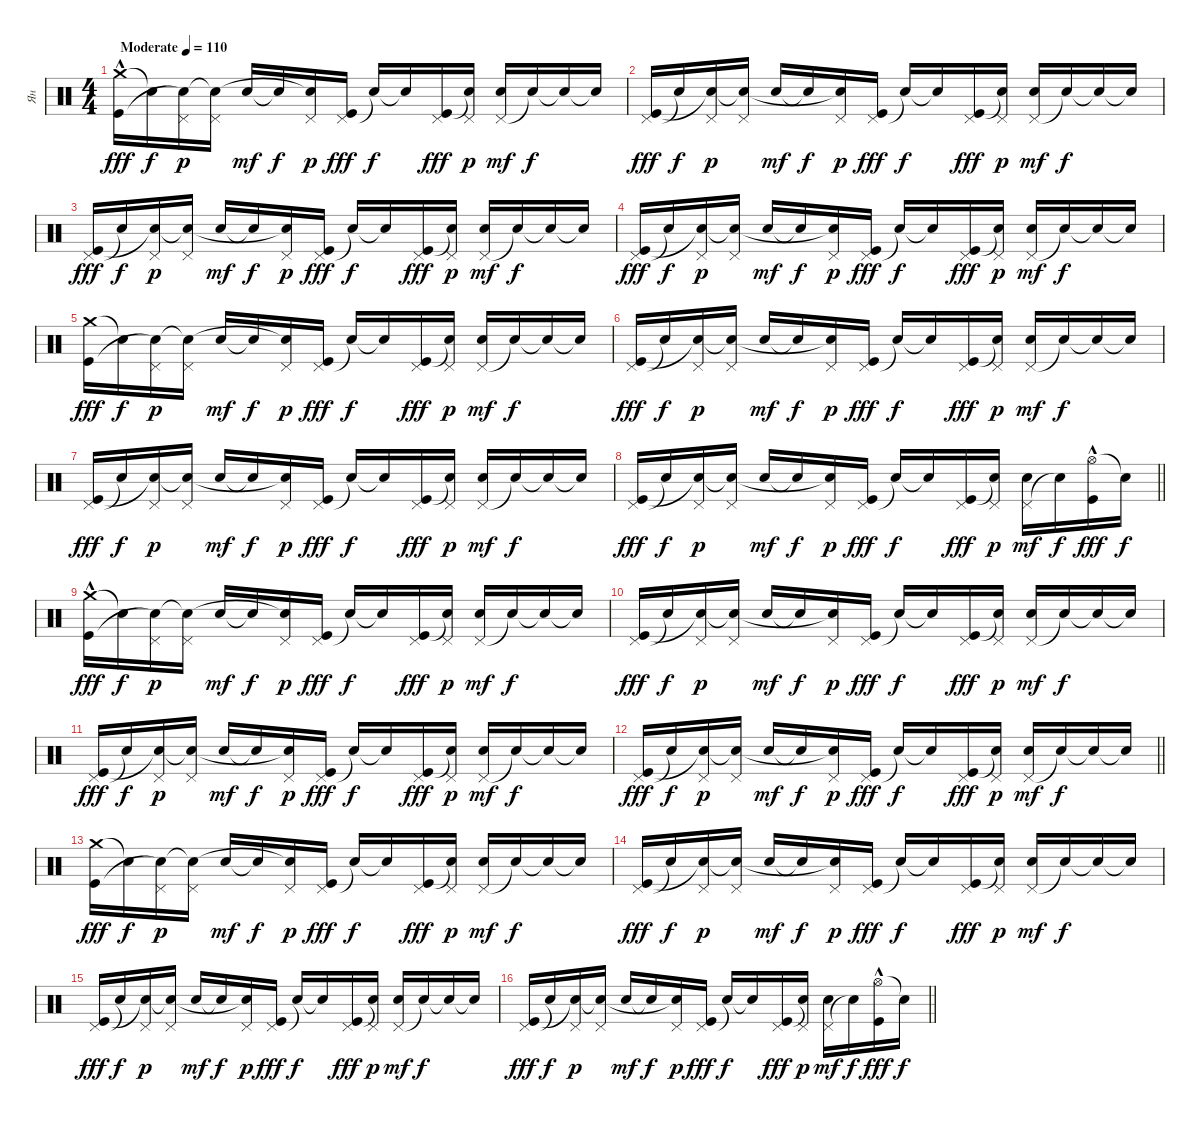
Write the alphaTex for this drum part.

\track ("Ян " "Ян ") {instrument percussion}
\staff
\articulation defaults
\ts (4 4)
\tempo (110 "Moderate")
\clef neutral
\ks c
("Crash medium (hit)" "Kick (hit)"{hac}).16{dy fff} "Snare (hit)"{t}.16{dy f} ("Pedal Hi-Hat (hit)" "Snare (hit)"{t}).16{dy p} ("Pedal Hi-Hat (hit)" "Snare (hit)"{t}).16 "Snare (hit) 2".16{dy mf} "Snare (hit)"{t}.16{dy f} ("Pedal Hi-Hat (hit)" "Snare (hit)"{t}).16{dy p} ("Pedal Hi-Hat (hit)" "Kick (hit)").16{dy fff} "Snare (hit)"{t}.16{dy f} "Snare (hit)"{t}.16 ("Pedal Hi-Hat (hit)" "Kick (hit)").16{dy fff} ("Pedal Hi-Hat (hit)" "Snare (hit)"{t}).16{dy p} ("Pedal Hi-Hat (hit)" "Snare (hit) 2").16{dy mf} "Snare (hit)"{t}.16{dy f} "Snare (hit)"{t}.16 "Snare (hit)"{t}.16 |
("Pedal Hi-Hat (hit)" "Kick (hit)").16{dy fff} "Snare (hit)"{t}.16{dy f} ("Pedal Hi-Hat (hit)" "Snare (hit)"{t}).16{dy p} ("Pedal Hi-Hat (hit)" "Snare (hit)"{t}).16 "Snare (hit) 2".16{dy mf} "Snare (hit)"{t}.16{dy f} ("Pedal Hi-Hat (hit)" "Snare (hit)"{t}).16{dy p} ("Pedal Hi-Hat (hit)" "Kick (hit)").16{dy fff} "Snare (hit)"{t}.16{dy f} "Snare (hit)"{t}.16 ("Pedal Hi-Hat (hit)" "Kick (hit)").16{dy fff} ("Pedal Hi-Hat (hit)" "Snare (hit)"{t}).16{dy p} ("Pedal Hi-Hat (hit)" "Snare (hit) 2").16{dy mf} "Snare (hit)"{t}.16{dy f} "Snare (hit)"{t}.16 "Snare (hit)"{t}.16 |
("Pedal Hi-Hat (hit)" "Kick (hit)").16{dy fff} "Snare (hit)"{t}.16{dy f} ("Pedal Hi-Hat (hit)" "Snare (hit)"{t}).16{dy p} ("Pedal Hi-Hat (hit)" "Snare (hit)"{t}).16 "Snare (hit) 2".16{dy mf} "Snare (hit)"{t}.16{dy f} ("Pedal Hi-Hat (hit)" "Snare (hit)"{t}).16{dy p} ("Pedal Hi-Hat (hit)" "Kick (hit)").16{dy fff} "Snare (hit)"{t}.16{dy f} "Snare (hit)"{t}.16 ("Pedal Hi-Hat (hit)" "Kick (hit)").16{dy fff} ("Pedal Hi-Hat (hit)" "Snare (hit)"{t}).16{dy p} ("Pedal Hi-Hat (hit)" "Snare (hit) 2").16{dy mf} "Snare (hit)"{t}.16{dy f} "Snare (hit)"{t}.16 "Snare (hit)"{t}.16 |
("Pedal Hi-Hat (hit)" "Kick (hit)").16{dy fff} "Snare (hit)"{t}.16{dy f} ("Pedal Hi-Hat (hit)" "Snare (hit)"{t}).16{dy p} ("Pedal Hi-Hat (hit)" "Snare (hit)"{t}).16 "Snare (hit) 2".16{dy mf} "Snare (hit)"{t}.16{dy f} ("Pedal Hi-Hat (hit)" "Snare (hit)"{t}).16{dy p} ("Pedal Hi-Hat (hit)" "Kick (hit)").16{dy fff} "Snare (hit)"{t}.16{dy f} "Snare (hit)"{t}.16 ("Pedal Hi-Hat (hit)" "Kick (hit)").16{dy fff} ("Pedal Hi-Hat (hit)" "Snare (hit)"{t}).16{dy p} ("Pedal Hi-Hat (hit)" "Snare (hit) 2").16{dy mf} "Snare (hit)"{t}.16{dy f} "Snare (hit)"{t}.16 "Snare (hit)"{t}.16 |
("Crash medium (hit)" "Kick (hit)").16{dy fff} "Snare (hit)"{t}.16{dy f} ("Pedal Hi-Hat (hit)" "Snare (hit)"{t}).16{dy p} ("Pedal Hi-Hat (hit)" "Snare (hit)"{t}).16 "Snare (hit) 2".16{dy mf} "Snare (hit)"{t}.16{dy f} ("Pedal Hi-Hat (hit)" "Snare (hit)"{t}).16{dy p} ("Pedal Hi-Hat (hit)" "Kick (hit)").16{dy fff} "Snare (hit)"{t}.16{dy f} "Snare (hit)"{t}.16 ("Pedal Hi-Hat (hit)" "Kick (hit)").16{dy fff} ("Pedal Hi-Hat (hit)" "Snare (hit)"{t}).16{dy p} ("Pedal Hi-Hat (hit)" "Snare (hit) 2").16{dy mf} "Snare (hit)"{t}.16{dy f} "Snare (hit)"{t}.16 "Snare (hit)"{t}.16 |
("Pedal Hi-Hat (hit)" "Kick (hit)").16{dy fff} "Snare (hit)"{t}.16{dy f} ("Pedal Hi-Hat (hit)" "Snare (hit)"{t}).16{dy p} ("Pedal Hi-Hat (hit)" "Snare (hit)"{t}).16 "Snare (hit) 2".16{dy mf} "Snare (hit)"{t}.16{dy f} ("Pedal Hi-Hat (hit)" "Snare (hit)"{t}).16{dy p} ("Pedal Hi-Hat (hit)" "Kick (hit)").16{dy fff} "Snare (hit)"{t}.16{dy f} "Snare (hit)"{t}.16 ("Pedal Hi-Hat (hit)" "Kick (hit)").16{dy fff} ("Pedal Hi-Hat (hit)" "Snare (hit)"{t}).16{dy p} ("Pedal Hi-Hat (hit)" "Snare (hit) 2").16{dy mf} "Snare (hit)"{t}.16{dy f} "Snare (hit)"{t}.16 "Snare (hit)"{t}.16 |
("Pedal Hi-Hat (hit)" "Kick (hit)").16{dy fff} "Snare (hit)"{t}.16{dy f} ("Pedal Hi-Hat (hit)" "Snare (hit)"{t}).16{dy p} ("Pedal Hi-Hat (hit)" "Snare (hit)"{t}).16 "Snare (hit) 2".16{dy mf} "Snare (hit)"{t}.16{dy f} ("Pedal Hi-Hat (hit)" "Snare (hit)"{t}).16{dy p} ("Pedal Hi-Hat (hit)" "Kick (hit)").16{dy fff} "Snare (hit)"{t}.16{dy f} "Snare (hit)"{t}.16 ("Pedal Hi-Hat (hit)" "Kick (hit)").16{dy fff} ("Pedal Hi-Hat (hit)" "Snare (hit)"{t}).16{dy p} ("Pedal Hi-Hat (hit)" "Snare (hit) 2").16{dy mf} "Snare (hit)"{t}.16{dy f} "Snare (hit)"{t}.16 "Snare (hit)"{t}.16 |
\barLineRight lightlight
("Pedal Hi-Hat (hit)" "Kick (hit)").16{dy fff} "Snare (hit)"{t}.16{dy f} ("Pedal Hi-Hat (hit)" "Snare (hit)"{t}).16{dy p} ("Pedal Hi-Hat (hit)" "Snare (hit)"{t}).16 "Snare (hit) 2".16{dy mf} "Snare (hit)"{t}.16{dy f} ("Pedal Hi-Hat (hit)" "Snare (hit)"{t}).16{dy p} ("Pedal Hi-Hat (hit)" "Kick (hit)").16{dy fff} "Snare (hit)"{t}.16{dy f} "Snare (hit)"{t}.16 ("Pedal Hi-Hat (hit)" "Kick (hit)").16{dy fff} ("Pedal Hi-Hat (hit)" "Snare (hit)"{t}).16{dy p} ("Pedal Hi-Hat (hit)" "Snare (hit) 2").16{dy mf} "Snare (hit)"{t}.16{dy f} ("Hi-Hat (open)" "Kick (hit)"{hac}).16{dy fff} "Snare (hit)"{t}.16{dy f} |
("Crash medium (hit)" "Kick (hit)"{hac}).16{dy fff} "Snare (hit)"{t}.16{dy f} ("Pedal Hi-Hat (hit)" "Snare (hit)"{t}).16{dy p} ("Pedal Hi-Hat (hit)" "Snare (hit)"{t}).16 "Snare (hit) 2".16{dy mf} "Snare (hit)"{t}.16{dy f} ("Pedal Hi-Hat (hit)" "Snare (hit)"{t}).16{dy p} ("Pedal Hi-Hat (hit)" "Kick (hit)").16{dy fff} "Snare (hit)"{t}.16{dy f} "Snare (hit)"{t}.16 ("Pedal Hi-Hat (hit)" "Kick (hit)").16{dy fff} ("Pedal Hi-Hat (hit)" "Snare (hit)"{t}).16{dy p} ("Pedal Hi-Hat (hit)" "Snare (hit) 2").16{dy mf} "Snare (hit)"{t}.16{dy f} "Snare (hit)"{t}.16 "Snare (hit)"{t}.16 |
("Pedal Hi-Hat (hit)" "Kick (hit)").16{dy fff} "Snare (hit)"{t}.16{dy f} ("Pedal Hi-Hat (hit)" "Snare (hit)"{t}).16{dy p} ("Pedal Hi-Hat (hit)" "Snare (hit)"{t}).16 "Snare (hit) 2".16{dy mf} "Snare (hit)"{t}.16{dy f} ("Pedal Hi-Hat (hit)" "Snare (hit)"{t}).16{dy p} ("Pedal Hi-Hat (hit)" "Kick (hit)").16{dy fff} "Snare (hit)"{t}.16{dy f} "Snare (hit)"{t}.16 ("Pedal Hi-Hat (hit)" "Kick (hit)").16{dy fff} ("Pedal Hi-Hat (hit)" "Snare (hit)"{t}).16{dy p} ("Pedal Hi-Hat (hit)" "Snare (hit) 2").16{dy mf} "Snare (hit)"{t}.16{dy f} "Snare (hit)"{t}.16 "Snare (hit)"{t}.16 |
("Pedal Hi-Hat (hit)" "Kick (hit)").16{dy fff} "Snare (hit)"{t}.16{dy f} ("Pedal Hi-Hat (hit)" "Snare (hit)"{t}).16{dy p} ("Pedal Hi-Hat (hit)" "Snare (hit)"{t}).16 "Snare (hit) 2".16{dy mf} "Snare (hit)"{t}.16{dy f} ("Pedal Hi-Hat (hit)" "Snare (hit)"{t}).16{dy p} ("Pedal Hi-Hat (hit)" "Kick (hit)").16{dy fff} "Snare (hit)"{t}.16{dy f} "Snare (hit)"{t}.16 ("Pedal Hi-Hat (hit)" "Kick (hit)").16{dy fff} ("Pedal Hi-Hat (hit)" "Snare (hit)"{t}).16{dy p} ("Pedal Hi-Hat (hit)" "Snare (hit) 2").16{dy mf} "Snare (hit)"{t}.16{dy f} "Snare (hit)"{t}.16 "Snare (hit)"{t}.16 |
\barLineRight lightlight
("Pedal Hi-Hat (hit)" "Kick (hit)").16{dy fff} "Snare (hit)"{t}.16{dy f} ("Pedal Hi-Hat (hit)" "Snare (hit)"{t}).16{dy p} ("Pedal Hi-Hat (hit)" "Snare (hit)"{t}).16 "Snare (hit) 2".16{dy mf} "Snare (hit)"{t}.16{dy f} ("Pedal Hi-Hat (hit)" "Snare (hit)"{t}).16{dy p} ("Pedal Hi-Hat (hit)" "Kick (hit)").16{dy fff} "Snare (hit)"{t}.16{dy f} "Snare (hit)"{t}.16 ("Pedal Hi-Hat (hit)" "Kick (hit)").16{dy fff} ("Pedal Hi-Hat (hit)" "Snare (hit)"{t}).16{dy p} ("Pedal Hi-Hat (hit)" "Snare (hit) 2").16{dy mf} "Snare (hit)"{t}.16{dy f} "Snare (hit)"{t}.16 "Snare (hit)"{t}.16 |
("Crash medium (hit)" "Kick (hit)").16{dy fff} "Snare (hit)"{t}.16{dy f} ("Pedal Hi-Hat (hit)" "Snare (hit)"{t}).16{dy p} ("Pedal Hi-Hat (hit)" "Snare (hit)"{t}).16 "Snare (hit) 2".16{dy mf} "Snare (hit)"{t}.16{dy f} ("Pedal Hi-Hat (hit)" "Snare (hit)"{t}).16{dy p} ("Pedal Hi-Hat (hit)" "Kick (hit)").16{dy fff} "Snare (hit)"{t}.16{dy f} "Snare (hit)"{t}.16 ("Pedal Hi-Hat (hit)" "Kick (hit)").16{dy fff} ("Pedal Hi-Hat (hit)" "Snare (hit)"{t}).16{dy p} ("Pedal Hi-Hat (hit)" "Snare (hit) 2").16{dy mf} "Snare (hit)"{t}.16{dy f} "Snare (hit)"{t}.16 "Snare (hit)"{t}.16 |
("Pedal Hi-Hat (hit)" "Kick (hit)").16{dy fff} "Snare (hit)"{t}.16{dy f} ("Pedal Hi-Hat (hit)" "Snare (hit)"{t}).16{dy p} ("Pedal Hi-Hat (hit)" "Snare (hit)"{t}).16 "Snare (hit) 2".16{dy mf} "Snare (hit)"{t}.16{dy f} ("Pedal Hi-Hat (hit)" "Snare (hit)"{t}).16{dy p} ("Pedal Hi-Hat (hit)" "Kick (hit)").16{dy fff} "Snare (hit)"{t}.16{dy f} "Snare (hit)"{t}.16 ("Pedal Hi-Hat (hit)" "Kick (hit)").16{dy fff} ("Pedal Hi-Hat (hit)" "Snare (hit)"{t}).16{dy p} ("Pedal Hi-Hat (hit)" "Snare (hit) 2").16{dy mf} "Snare (hit)"{t}.16{dy f} "Snare (hit)"{t}.16 "Snare (hit)"{t}.16 |
("Pedal Hi-Hat (hit)" "Kick (hit)").16{dy fff} "Snare (hit)"{t}.16{dy f} ("Pedal Hi-Hat (hit)" "Snare (hit)"{t}).16{dy p} ("Pedal Hi-Hat (hit)" "Snare (hit)"{t}).16 "Snare (hit) 2".16{dy mf} "Snare (hit)"{t}.16{dy f} ("Pedal Hi-Hat (hit)" "Snare (hit)"{t}).16{dy p} ("Pedal Hi-Hat (hit)" "Kick (hit)").16{dy fff} "Snare (hit)"{t}.16{dy f} "Snare (hit)"{t}.16 ("Pedal Hi-Hat (hit)" "Kick (hit)").16{dy fff} ("Pedal Hi-Hat (hit)" "Snare (hit)"{t}).16{dy p} ("Pedal Hi-Hat (hit)" "Snare (hit) 2").16{dy mf} "Snare (hit)"{t}.16{dy f} "Snare (hit)"{t}.16 "Snare (hit)"{t}.16 |
\barLineRight lightlight
("Pedal Hi-Hat (hit)" "Kick (hit)").16{dy fff} "Snare (hit)"{t}.16{dy f} ("Pedal Hi-Hat (hit)" "Snare (hit)"{t}).16{dy p} ("Pedal Hi-Hat (hit)" "Snare (hit)"{t}).16 "Snare (hit) 2".16{dy mf} "Snare (hit)"{t}.16{dy f} ("Pedal Hi-Hat (hit)" "Snare (hit)"{t}).16{dy p} ("Pedal Hi-Hat (hit)" "Kick (hit)").16{dy fff} "Snare (hit)"{t}.16{dy f} "Snare (hit)"{t}.16 ("Pedal Hi-Hat (hit)" "Kick (hit)").16{dy fff} ("Pedal Hi-Hat (hit)" "Snare (hit)"{t}).16{dy p} ("Pedal Hi-Hat (hit)" "Snare (hit) 2").16{dy mf} "Snare (hit)"{t}.16{dy f} ("Hi-Hat (open)" "Kick (hit)"{hac}).16{dy fff} "Snare (hit)"{t}.16{dy f}
